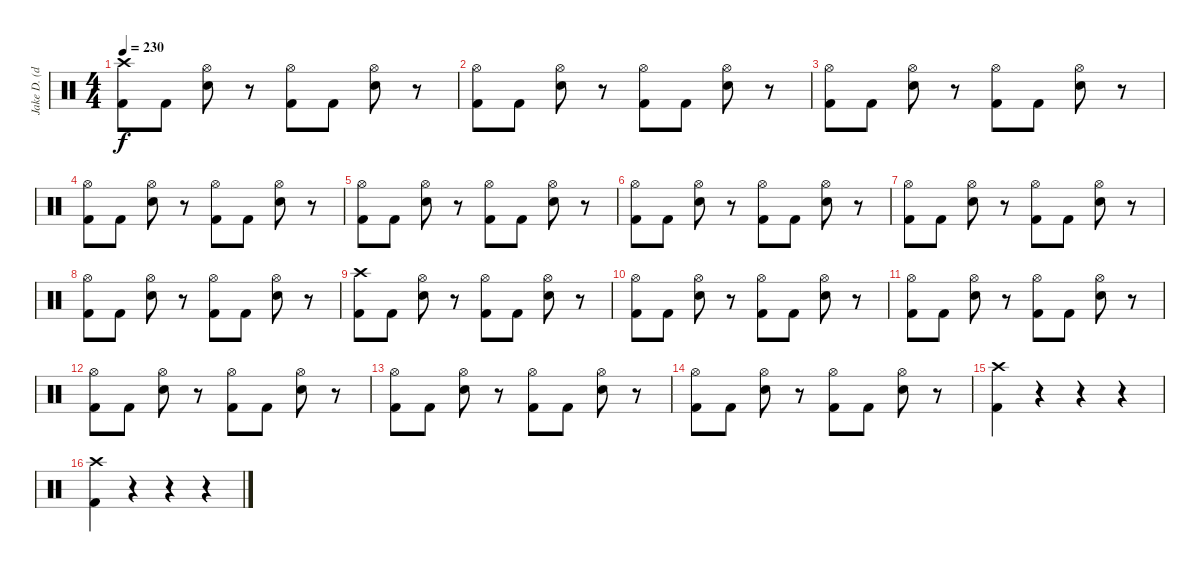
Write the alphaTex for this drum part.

\track ("Jake D. (drums)" "Jake D. (d") {instrument percussion}
\staff {score}
\articulation defaults
\ts (4 4)
\tempo 230
\clef neutral
\ks c
("Crash high (hit)" "Kick (hit) 2").8{dy f} "Kick (hit) 2".8 ("Hi-Hat (open)" "Electric Snare (hit)").8 r.8 ("Hi-Hat (open)" "Kick (hit) 2").8 "Kick (hit) 2".8 ("Hi-Hat (open)" "Electric Snare (hit)").8 r.8 |
("Hi-Hat (open)" "Kick (hit) 2").8 "Kick (hit) 2".8 ("Hi-Hat (open)" "Electric Snare (hit)").8 r.8 ("Hi-Hat (open)" "Kick (hit) 2").8 "Kick (hit) 2".8 ("Hi-Hat (open)" "Electric Snare (hit)").8 r.8 |
("Hi-Hat (open)" "Kick (hit) 2").8 "Kick (hit) 2".8 ("Hi-Hat (open)" "Electric Snare (hit)").8 r.8 ("Hi-Hat (open)" "Kick (hit) 2").8 "Kick (hit) 2".8 ("Hi-Hat (open)" "Electric Snare (hit)").8 r.8 |
("Hi-Hat (open)" "Kick (hit) 2").8 "Kick (hit) 2".8 ("Hi-Hat (open)" "Electric Snare (hit)").8 r.8 ("Hi-Hat (open)" "Kick (hit) 2").8 "Kick (hit) 2".8 ("Hi-Hat (open)" "Electric Snare (hit)").8 r.8 |
("Hi-Hat (open)" "Kick (hit) 2").8 "Kick (hit) 2".8 ("Hi-Hat (open)" "Electric Snare (hit)").8 r.8 ("Hi-Hat (open)" "Kick (hit) 2").8 "Kick (hit) 2".8 ("Hi-Hat (open)" "Electric Snare (hit)").8 r.8 |
("Hi-Hat (open)" "Kick (hit) 2").8 "Kick (hit) 2".8 ("Hi-Hat (open)" "Electric Snare (hit)").8 r.8 ("Hi-Hat (open)" "Kick (hit) 2").8 "Kick (hit) 2".8 ("Hi-Hat (open)" "Electric Snare (hit)").8 r.8 |
("Hi-Hat (open)" "Kick (hit) 2").8 "Kick (hit) 2".8 ("Hi-Hat (open)" "Electric Snare (hit)").8 r.8 ("Hi-Hat (open)" "Kick (hit) 2").8 "Kick (hit) 2".8 ("Hi-Hat (open)" "Electric Snare (hit)").8 r.8 |
("Hi-Hat (open)" "Kick (hit) 2").8 "Kick (hit) 2".8 ("Hi-Hat (open)" "Electric Snare (hit)").8 r.8 ("Hi-Hat (open)" "Kick (hit) 2").8 "Kick (hit) 2".8 ("Hi-Hat (open)" "Electric Snare (hit)").8 r.8 |
("Crash high (hit)" "Kick (hit) 2").8 "Kick (hit) 2".8 ("Hi-Hat (open)" "Electric Snare (hit)").8 r.8 ("Hi-Hat (open)" "Kick (hit) 2").8 "Kick (hit) 2".8 ("Hi-Hat (open)" "Electric Snare (hit)").8 r.8 |
("Hi-Hat (open)" "Kick (hit) 2").8 "Kick (hit) 2".8 ("Hi-Hat (open)" "Electric Snare (hit)").8 r.8 ("Hi-Hat (open)" "Kick (hit) 2").8 "Kick (hit) 2".8 ("Hi-Hat (open)" "Electric Snare (hit)").8 r.8 |
("Hi-Hat (open)" "Kick (hit) 2").8 "Kick (hit) 2".8 ("Hi-Hat (open)" "Electric Snare (hit)").8 r.8 ("Hi-Hat (open)" "Kick (hit) 2").8 "Kick (hit) 2".8 ("Hi-Hat (open)" "Electric Snare (hit)").8 r.8 |
("Hi-Hat (open)" "Kick (hit) 2").8 "Kick (hit) 2".8 ("Hi-Hat (open)" "Electric Snare (hit)").8 r.8 ("Hi-Hat (open)" "Kick (hit) 2").8 "Kick (hit) 2".8 ("Hi-Hat (open)" "Electric Snare (hit)").8 r.8 |
("Hi-Hat (open)" "Kick (hit) 2").8 "Kick (hit) 2".8 ("Hi-Hat (open)" "Electric Snare (hit)").8 r.8 ("Hi-Hat (open)" "Kick (hit) 2").8 "Kick (hit) 2".8 ("Hi-Hat (open)" "Electric Snare (hit)").8 r.8 |
("Hi-Hat (open)" "Kick (hit) 2").8 "Kick (hit) 2".8 ("Hi-Hat (open)" "Electric Snare (hit)").8 r.8 ("Hi-Hat (open)" "Kick (hit) 2").8 "Kick (hit) 2".8 ("Hi-Hat (open)" "Electric Snare (hit)").8 r.8 |
("Crash high (hit)" "Kick (hit) 2").4 r.4 r.4 r.4 |
("Crash high (hit)" "Kick (hit) 2").4 r.4 r.4{volume 0} r.4
